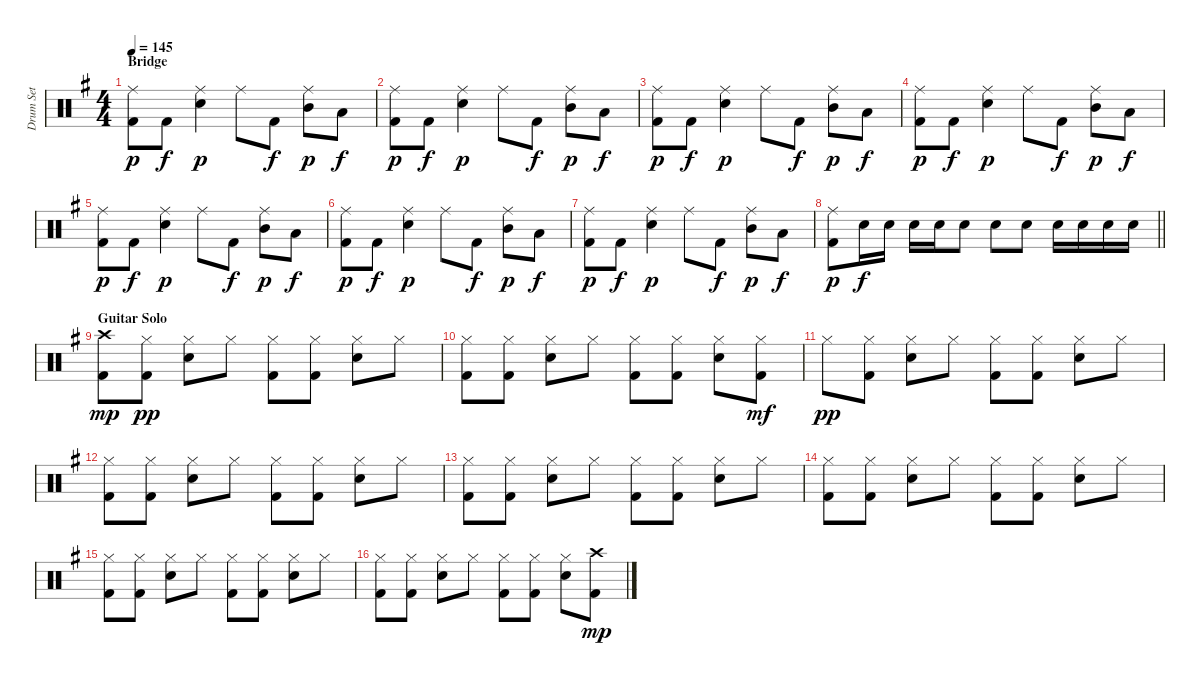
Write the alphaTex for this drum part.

\track ("Drum Set" "Drum Set") {instrument percussion}
\staff {score}
\articulation defaults
\ts (4 4)
\section ("" "Bridge")
\tempo 145
\clef neutral
\ks g
("Kick (hit) 2" "Ride (middle)").8{dy p} "Kick (hit) 2".8{dy f} ("Electric Snare (hit)" "Ride (middle)").4{dy p} "Ride (middle)".8 "Kick (hit) 2".8{dy f} ("Ride (middle)" "Mid Tom (hit)").8{dy p} "Low Tom (hit)".8{dy f} |
("Kick (hit) 2" "Ride (middle)").8{dy p} "Kick (hit) 2".8{dy f} ("Electric Snare (hit)" "Ride (middle)").4{dy p} "Ride (middle)".8 "Kick (hit) 2".8{dy f} ("Ride (middle)" "Mid Tom (hit)").8{dy p} "Low Tom (hit)".8{dy f} |
("Kick (hit) 2" "Ride (middle)").8{dy p} "Kick (hit) 2".8{dy f} ("Electric Snare (hit)" "Ride (middle)").4{dy p} "Ride (middle)".8 "Kick (hit) 2".8{dy f} ("Ride (middle)" "Mid Tom (hit)").8{dy p} "Low Tom (hit)".8{dy f} |
("Kick (hit) 2" "Ride (middle)").8{dy p} "Kick (hit) 2".8{dy f} ("Electric Snare (hit)" "Ride (middle)").4{dy p} "Ride (middle)".8 "Kick (hit) 2".8{dy f} ("Ride (middle)" "Mid Tom (hit)").8{dy p} "Low Tom (hit)".8{dy f} |
("Kick (hit) 2" "Ride (middle)").8{dy p} "Kick (hit) 2".8{dy f} ("Electric Snare (hit)" "Ride (middle)").4{dy p} "Ride (middle)".8 "Kick (hit) 2".8{dy f} ("Ride (middle)" "Mid Tom (hit)").8{dy p} "Low Tom (hit)".8{dy f} |
("Kick (hit) 2" "Ride (middle)").8{dy p} "Kick (hit) 2".8{dy f} ("Electric Snare (hit)" "Ride (middle)").4{dy p} "Ride (middle)".8 "Kick (hit) 2".8{dy f} ("Ride (middle)" "Mid Tom (hit)").8{dy p} "Low Tom (hit)".8{dy f} |
("Kick (hit) 2" "Ride (middle)").8{dy p} "Kick (hit) 2".8{dy f} ("Electric Snare (hit)" "Ride (middle)").4{dy p} "Ride (middle)".8 "Kick (hit) 2".8{dy f} ("Ride (middle)" "Mid Tom (hit)").8{dy p} "Low Tom (hit)".8{dy f} |
\barLineRight lightlight
("Kick (hit) 2" "Ride (middle)").8{dy p} "Electric Snare (hit)".16{dy f} "Electric Snare (hit)".16 "Electric Snare (hit)".16 "Electric Snare (hit)".16 "Electric Snare (hit)".8 "Electric Snare (hit)".8 "Electric Snare (hit)".8 "Electric Snare (hit)".16 "Electric Snare (hit)".16 "Electric Snare (hit)".16 "Electric Snare (hit)".16 |
\section ("" "Guitar Solo")
("Crash high (hit)" "Kick (hit) 2").8{dy mp} ("Hi-Hat (closed)" "Kick (hit) 2").8{dy pp} ("Hi-Hat (closed)" "Electric Snare (hit)").8 "Hi-Hat (closed)".8 ("Hi-Hat (closed)" "Kick (hit) 2").8 ("Hi-Hat (closed)" "Kick (hit) 2").8 ("Hi-Hat (closed)" "Electric Snare (hit)").8 "Hi-Hat (closed)".8 |
("Hi-Hat (closed)" "Kick (hit) 2").8 ("Hi-Hat (closed)" "Kick (hit) 2").8 ("Hi-Hat (closed)" "Electric Snare (hit)").8 "Hi-Hat (closed)".8 ("Hi-Hat (closed)" "Kick (hit) 2").8 ("Hi-Hat (closed)" "Kick (hit) 2").8 ("Hi-Hat (closed)" "Electric Snare (hit)").8 ("Hi-Hat (closed)" "Kick (hit) 2").8{dy mf} |
"Hi-Hat (closed)".8{dy pp} ("Hi-Hat (closed)" "Kick (hit) 2").8 ("Hi-Hat (closed)" "Electric Snare (hit)").8 "Hi-Hat (closed)".8 ("Hi-Hat (closed)" "Kick (hit) 2").8 ("Hi-Hat (closed)" "Kick (hit) 2").8 ("Hi-Hat (closed)" "Electric Snare (hit)").8 "Hi-Hat (closed)".8 |
("Hi-Hat (closed)" "Kick (hit) 2").8 ("Hi-Hat (closed)" "Kick (hit) 2").8 ("Hi-Hat (closed)" "Electric Snare (hit)").8 "Hi-Hat (closed)".8 ("Hi-Hat (closed)" "Kick (hit) 2").8 ("Hi-Hat (closed)" "Kick (hit) 2").8 ("Hi-Hat (closed)" "Electric Snare (hit)").8 "Hi-Hat (closed)".8 |
("Hi-Hat (closed)" "Kick (hit) 2").8 ("Hi-Hat (closed)" "Kick (hit) 2").8 ("Hi-Hat (closed)" "Electric Snare (hit)").8 "Hi-Hat (closed)".8 ("Hi-Hat (closed)" "Kick (hit) 2").8 ("Hi-Hat (closed)" "Kick (hit) 2").8 ("Hi-Hat (closed)" "Electric Snare (hit)").8 "Hi-Hat (closed)".8 |
("Hi-Hat (closed)" "Kick (hit) 2").8 ("Hi-Hat (closed)" "Kick (hit) 2").8 ("Hi-Hat (closed)" "Electric Snare (hit)").8 "Hi-Hat (closed)".8 ("Hi-Hat (closed)" "Kick (hit) 2").8 ("Hi-Hat (closed)" "Kick (hit) 2").8 ("Hi-Hat (closed)" "Electric Snare (hit)").8 "Hi-Hat (closed)".8 |
("Hi-Hat (closed)" "Kick (hit) 2").8 ("Hi-Hat (closed)" "Kick (hit) 2").8 ("Hi-Hat (closed)" "Electric Snare (hit)").8 "Hi-Hat (closed)".8 ("Hi-Hat (closed)" "Kick (hit) 2").8 ("Hi-Hat (closed)" "Kick (hit) 2").8 ("Hi-Hat (closed)" "Electric Snare (hit)").8 "Hi-Hat (closed)".8 |
("Hi-Hat (closed)" "Kick (hit) 2").8 ("Hi-Hat (closed)" "Kick (hit) 2").8 ("Hi-Hat (closed)" "Electric Snare (hit)").8 "Hi-Hat (closed)".8 ("Hi-Hat (closed)" "Kick (hit) 2").8 ("Hi-Hat (closed)" "Kick (hit) 2").8 ("Hi-Hat (closed)" "Electric Snare (hit)").8 ("Crash high (hit)" "Kick (hit) 2").8{dy mp}
